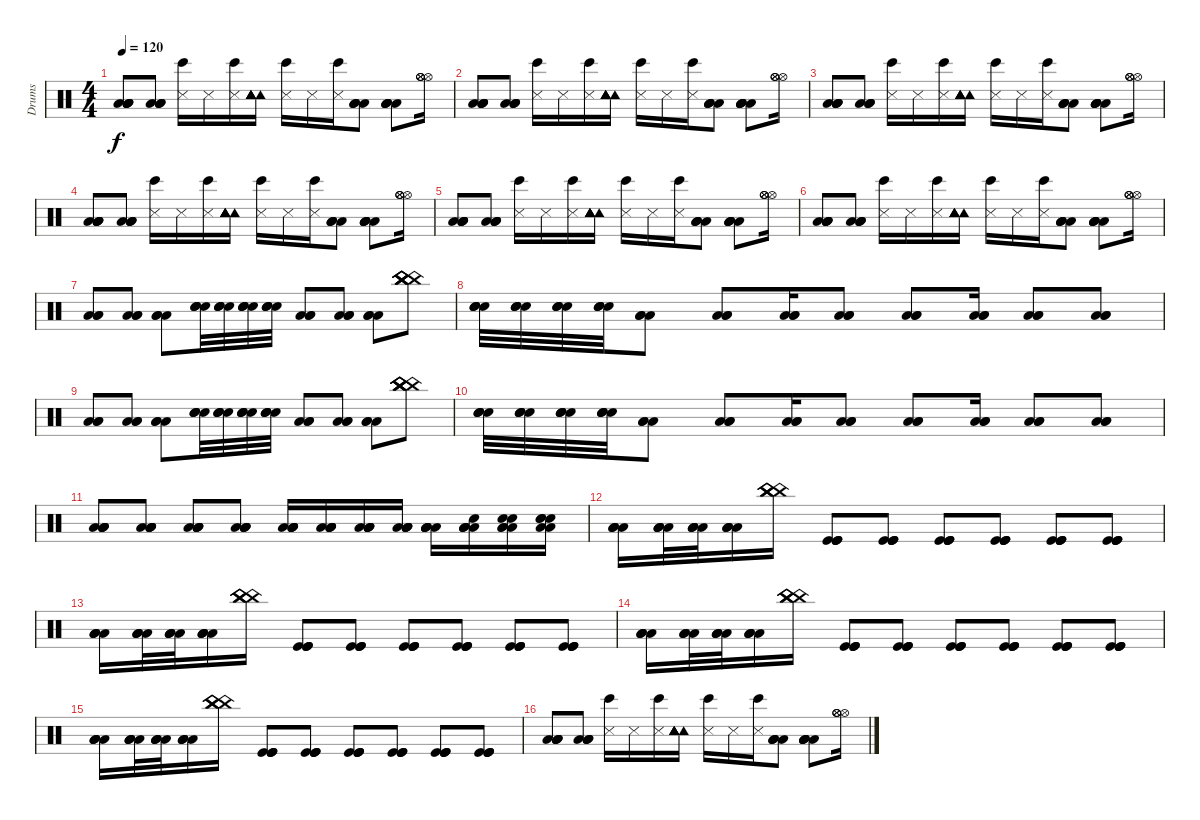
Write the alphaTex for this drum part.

\track ("Drums" "Drums") {instrument percussion}
\staff {score}
\articulation defaults
\ts (4 4)
\tempo 120
\clef neutral
\ks c
("Low Floor Tom (hit)" "Low Floor Tom (hit)" "Low Floor Tom (hit)" "Low Floor Tom (hit)" "Low Floor Tom (hit)").8{dy f} ("Low Floor Tom (hit)" "Low Floor Tom (hit)" "Low Floor Tom (hit)" "Low Floor Tom (hit)").8 ("Bongo High (hit)" "Snare (side stick) 3").16 "Snare (side stick) 3".16 ("Bongo High (hit)" "Snare (side stick) 3").16 ("Tambourine (hit)" "Tambourine (hit)" "Tambourine (hit)" "Tambourine (hit)" "Tambourine (hit)" "Tambourine (hit)").16 ("Bongo High (hit)" "Snare (side stick) 3").16 "Snare (side stick) 3".16 ("Bongo High (hit)" "Snare (side stick) 3").16 ("Low Floor Tom (hit)" "Low Floor Tom (hit)" "Low Floor Tom (hit)" "Low Floor Tom (hit)").8 ("Low Floor Tom (hit)" "Low Floor Tom (hit)" "Low Floor Tom (hit)" "Low Floor Tom (hit)" "Low Floor Tom (hit)").8 ("Hi-Hat (open)" "Hi-Hat (open)" "Hi-Hat (open)" "Hi-Hat (open)").16 |
("Low Floor Tom (hit)" "Low Floor Tom (hit)" "Low Floor Tom (hit)" "Low Floor Tom (hit)" "Low Floor Tom (hit)").8 ("Low Floor Tom (hit)" "Low Floor Tom (hit)" "Low Floor Tom (hit)" "Low Floor Tom (hit)").8 ("Bongo High (hit)" "Snare (side stick) 3").16 "Snare (side stick) 3".16 ("Bongo High (hit)" "Snare (side stick) 3").16 ("Tambourine (hit)" "Tambourine (hit)" "Tambourine (hit)" "Tambourine (hit)" "Tambourine (hit)" "Tambourine (hit)").16 ("Bongo High (hit)" "Snare (side stick) 3").16 "Snare (side stick) 3".16 ("Bongo High (hit)" "Snare (side stick) 3").16 ("Low Floor Tom (hit)" "Low Floor Tom (hit)" "Low Floor Tom (hit)" "Low Floor Tom (hit)").8 ("Low Floor Tom (hit)" "Low Floor Tom (hit)" "Low Floor Tom (hit)" "Low Floor Tom (hit)" "Low Floor Tom (hit)").8 ("Hi-Hat (open)" "Hi-Hat (open)" "Hi-Hat (open)" "Hi-Hat (open)").16 |
("Low Floor Tom (hit)" "Low Floor Tom (hit)" "Low Floor Tom (hit)" "Low Floor Tom (hit)" "Low Floor Tom (hit)").8 ("Low Floor Tom (hit)" "Low Floor Tom (hit)" "Low Floor Tom (hit)" "Low Floor Tom (hit)").8 ("Bongo High (hit)" "Snare (side stick) 3").16 "Snare (side stick) 3".16 ("Bongo High (hit)" "Snare (side stick) 3").16 ("Tambourine (hit)" "Tambourine (hit)" "Tambourine (hit)" "Tambourine (hit)" "Tambourine (hit)" "Tambourine (hit)").16 ("Bongo High (hit)" "Snare (side stick) 3").16 "Snare (side stick) 3".16 ("Bongo High (hit)" "Snare (side stick) 3").16 ("Low Floor Tom (hit)" "Low Floor Tom (hit)" "Low Floor Tom (hit)" "Low Floor Tom (hit)").8 ("Low Floor Tom (hit)" "Low Floor Tom (hit)" "Low Floor Tom (hit)" "Low Floor Tom (hit)" "Low Floor Tom (hit)").8 ("Hi-Hat (open)" "Hi-Hat (open)" "Hi-Hat (open)" "Hi-Hat (open)").16 |
("Low Floor Tom (hit)" "Low Floor Tom (hit)" "Low Floor Tom (hit)" "Low Floor Tom (hit)" "Low Floor Tom (hit)").8 ("Low Floor Tom (hit)" "Low Floor Tom (hit)" "Low Floor Tom (hit)" "Low Floor Tom (hit)").8 ("Bongo High (hit)" "Snare (side stick) 3").16 "Snare (side stick) 3".16 ("Bongo High (hit)" "Snare (side stick) 3").16 ("Tambourine (hit)" "Tambourine (hit)" "Tambourine (hit)" "Tambourine (hit)" "Tambourine (hit)" "Tambourine (hit)").16 ("Bongo High (hit)" "Snare (side stick) 3").16 "Snare (side stick) 3".16 ("Bongo High (hit)" "Snare (side stick) 3").16 ("Low Floor Tom (hit)" "Low Floor Tom (hit)" "Low Floor Tom (hit)" "Low Floor Tom (hit)").8 ("Low Floor Tom (hit)" "Low Floor Tom (hit)" "Low Floor Tom (hit)" "Low Floor Tom (hit)" "Low Floor Tom (hit)").8 ("Hi-Hat (open)" "Hi-Hat (open)" "Hi-Hat (open)" "Hi-Hat (open)").16 |
("Low Floor Tom (hit)" "Low Floor Tom (hit)" "Low Floor Tom (hit)" "Low Floor Tom (hit)" "Low Floor Tom (hit)").8 ("Low Floor Tom (hit)" "Low Floor Tom (hit)" "Low Floor Tom (hit)" "Low Floor Tom (hit)").8 ("Bongo High (hit)" "Snare (side stick) 3").16 "Snare (side stick) 3".16 ("Bongo High (hit)" "Snare (side stick) 3").16 ("Tambourine (hit)" "Tambourine (hit)" "Tambourine (hit)" "Tambourine (hit)" "Tambourine (hit)" "Tambourine (hit)").16 ("Bongo High (hit)" "Snare (side stick) 3").16 "Snare (side stick) 3".16 ("Bongo High (hit)" "Snare (side stick) 3").16 ("Low Floor Tom (hit)" "Low Floor Tom (hit)" "Low Floor Tom (hit)" "Low Floor Tom (hit)").8 ("Low Floor Tom (hit)" "Low Floor Tom (hit)" "Low Floor Tom (hit)" "Low Floor Tom (hit)" "Low Floor Tom (hit)").8 ("Hi-Hat (open)" "Hi-Hat (open)" "Hi-Hat (open)" "Hi-Hat (open)").16 |
("Low Floor Tom (hit)" "Low Floor Tom (hit)" "Low Floor Tom (hit)" "Low Floor Tom (hit)" "Low Floor Tom (hit)").8 ("Low Floor Tom (hit)" "Low Floor Tom (hit)" "Low Floor Tom (hit)" "Low Floor Tom (hit)").8 ("Bongo High (hit)" "Snare (side stick) 3").16 "Snare (side stick) 3".16 ("Bongo High (hit)" "Snare (side stick) 3").16 ("Tambourine (hit)" "Tambourine (hit)" "Tambourine (hit)" "Tambourine (hit)" "Tambourine (hit)" "Tambourine (hit)").16 ("Bongo High (hit)" "Snare (side stick) 3").16 "Snare (side stick) 3".16 ("Bongo High (hit)" "Snare (side stick) 3").16 ("Low Floor Tom (hit)" "Low Floor Tom (hit)" "Low Floor Tom (hit)" "Low Floor Tom (hit)").8 ("Low Floor Tom (hit)" "Low Floor Tom (hit)" "Low Floor Tom (hit)" "Low Floor Tom (hit)" "Low Floor Tom (hit)").8 ("Hi-Hat (open)" "Hi-Hat (open)" "Hi-Hat (open)" "Hi-Hat (open)").16 |
("Low Floor Tom (hit)" "Low Floor Tom (hit)" "Low Floor Tom (hit)").8 ("Low Floor Tom (hit)" "Low Floor Tom (hit)" "Low Floor Tom (hit)").8 ("Low Floor Tom (hit)" "Low Floor Tom (hit)" "Low Floor Tom (hit)").8 ("Snare (hit) 2" "Snare (hit) 2" "Snare (hit) 2" "Snare (hit) 2").32 ("Snare (hit) 2" "Snare (hit) 2" "Snare (hit) 2" "Snare (hit) 2").32 ("Snare (hit) 2" "Snare (hit) 2" "Snare (hit) 2" "Snare (hit) 2").32 ("Snare (hit) 2" "Snare (hit) 2" "Snare (hit) 2" "Snare (hit) 2").32 ("Low Floor Tom (hit)" "Low Floor Tom (hit)" "Low Floor Tom (hit)").8 ("Low Floor Tom (hit)" "Low Floor Tom (hit)" "Low Floor Tom (hit)").8 ("Low Floor Tom (hit)" "Low Floor Tom (hit)" "Low Floor Tom (hit)").8 ("China (hit)" "China (hit)" "China (hit)" "China (hit)" "China (hit)" "China (hit)").8 |
("Snare (hit) 2" "Snare (hit) 2" "Snare (hit) 2" "Snare (hit) 2").32 ("Snare (hit) 2" "Snare (hit) 2" "Snare (hit) 2" "Snare (hit) 2").32 ("Snare (hit) 2" "Snare (hit) 2" "Snare (hit) 2" "Snare (hit) 2").32 ("Snare (hit) 2" "Snare (hit) 2" "Snare (hit) 2" "Snare (hit) 2").32 ("Low Floor Tom (hit)" "Low Floor Tom (hit)" "Low Floor Tom (hit)").8 ("Low Floor Tom (hit)" "Low Floor Tom (hit)" "Low Floor Tom (hit)").8 ("Low Floor Tom (hit)" "Low Floor Tom (hit)" "Low Floor Tom (hit)").16 ("Low Floor Tom (hit)" "Low Floor Tom (hit)" "Low Floor Tom (hit)").8 ("Low Floor Tom (hit)" "Low Floor Tom (hit)" "Low Floor Tom (hit)").8 ("Low Floor Tom (hit)" "Low Floor Tom (hit)" "Low Floor Tom (hit)").16 ("Low Floor Tom (hit)" "Low Floor Tom (hit)" "Low Floor Tom (hit)").8 ("Low Floor Tom (hit)" "Low Floor Tom (hit)" "Low Floor Tom (hit)").8 |
("Low Floor Tom (hit)" "Low Floor Tom (hit)" "Low Floor Tom (hit)").8 ("Low Floor Tom (hit)" "Low Floor Tom (hit)" "Low Floor Tom (hit)").8 ("Low Floor Tom (hit)" "Low Floor Tom (hit)" "Low Floor Tom (hit)").8 ("Snare (hit) 2" "Snare (hit) 2" "Snare (hit) 2" "Snare (hit) 2").32 ("Snare (hit) 2" "Snare (hit) 2" "Snare (hit) 2" "Snare (hit) 2").32 ("Snare (hit) 2" "Snare (hit) 2" "Snare (hit) 2" "Snare (hit) 2").32 ("Snare (hit) 2" "Snare (hit) 2" "Snare (hit) 2" "Snare (hit) 2").32 ("Low Floor Tom (hit)" "Low Floor Tom (hit)" "Low Floor Tom (hit)").8 ("Low Floor Tom (hit)" "Low Floor Tom (hit)" "Low Floor Tom (hit)").8 ("Low Floor Tom (hit)" "Low Floor Tom (hit)" "Low Floor Tom (hit)").8 ("China (hit)" "China (hit)" "China (hit)" "China (hit)" "China (hit)" "China (hit)").8 |
("Snare (hit) 2" "Snare (hit) 2" "Snare (hit) 2" "Snare (hit) 2").32 ("Snare (hit) 2" "Snare (hit) 2" "Snare (hit) 2" "Snare (hit) 2").32 ("Snare (hit) 2" "Snare (hit) 2" "Snare (hit) 2" "Snare (hit) 2").32 ("Snare (hit) 2" "Snare (hit) 2" "Snare (hit) 2" "Snare (hit) 2").32 ("Low Floor Tom (hit)" "Low Floor Tom (hit)" "Low Floor Tom (hit)").8 ("Low Floor Tom (hit)" "Low Floor Tom (hit)" "Low Floor Tom (hit)").8 ("Low Floor Tom (hit)" "Low Floor Tom (hit)" "Low Floor Tom (hit)").16 ("Low Floor Tom (hit)" "Low Floor Tom (hit)" "Low Floor Tom (hit)").8 ("Low Floor Tom (hit)" "Low Floor Tom (hit)" "Low Floor Tom (hit)").8 ("Low Floor Tom (hit)" "Low Floor Tom (hit)" "Low Floor Tom (hit)").16 ("Low Floor Tom (hit)" "Low Floor Tom (hit)" "Low Floor Tom (hit)").8 ("Low Floor Tom (hit)" "Low Floor Tom (hit)" "Low Floor Tom (hit)").8 |
("Low Floor Tom (hit)" "Low Floor Tom (hit)" "Low Floor Tom (hit)" "Low Floor Tom (hit)" "Low Floor Tom (hit)").8 ("Low Floor Tom (hit)" "Low Floor Tom (hit)" "Low Floor Tom (hit)" "Low Floor Tom (hit)" "Low Floor Tom (hit)").8 ("Low Floor Tom (hit)" "Low Floor Tom (hit)" "Low Floor Tom (hit)" "Low Floor Tom (hit)" "Low Floor Tom (hit)").8 ("Low Floor Tom (hit)" "Low Floor Tom (hit)" "Low Floor Tom (hit)" "Low Floor Tom (hit)" "Low Floor Tom (hit)").8 ("Low Floor Tom (hit)" "Low Floor Tom (hit)" "Low Floor Tom (hit)" "Low Floor Tom (hit)" "Low Floor Tom (hit)").16 ("Low Floor Tom (hit)" "Low Floor Tom (hit)" "Low Floor Tom (hit)" "Low Floor Tom (hit)" "Low Floor Tom (hit)").16 ("Low Floor Tom (hit)" "Low Floor Tom (hit)" "Low Floor Tom (hit)" "Low Floor Tom (hit)" "Low Floor Tom (hit)").16 ("Low Floor Tom (hit)" "Low Floor Tom (hit)" "Low Floor Tom (hit)" "Low Floor Tom (hit)" "Low Floor Tom (hit)").16 ("Low Floor Tom (hit)" "Low Floor Tom (hit)" "Low Floor Tom (hit)" "Low Floor Tom (hit)" "Low Floor Tom (hit)").16 ("Low Floor Tom (hit)" "Low Floor Tom (hit)" "Low Floor Tom (hit)" "Snare (hit) 2" "Low Floor Tom (hit)").16 ("Low Floor Tom (hit)" "Low Floor Tom (hit)" "Snare (hit) 2" "Snare (hit) 2" "Low Floor Tom (hit)").16 ("Low Floor Tom (hit)" "Snare (hit) 2" "Snare (hit) 2" "Snare (hit) 2" "Low Floor Tom (hit)").16 |
("Low Floor Tom (hit)" "Low Floor Tom (hit)" "Low Floor Tom (hit)" "Low Floor Tom (hit)").16 ("Low Floor Tom (hit)" "Low Floor Tom (hit)" "Low Floor Tom (hit)" "Low Floor Tom (hit)").32 ("Low Floor Tom (hit)" "Low Floor Tom (hit)" "Low Floor Tom (hit)" "Low Floor Tom (hit)").32 ("Low Floor Tom (hit)" "Low Floor Tom (hit)" "Low Floor Tom (hit)" "Low Floor Tom (hit)").16 ("China (hit)" "China (hit)" "China (hit)" "China (hit)").16 ("Kick (hit)" "Kick (hit)" "Kick (hit)" "Kick (hit)").8 ("Kick (hit)" "Kick (hit)" "Kick (hit)" "Kick (hit)").8 ("Kick (hit)" "Kick (hit)" "Kick (hit)" "Kick (hit)").8 ("Kick (hit)" "Kick (hit)" "Kick (hit)" "Kick (hit)").8 ("Kick (hit)" "Kick (hit)" "Kick (hit)" "Kick (hit)").8 ("Kick (hit)" "Kick (hit)" "Kick (hit)" "Kick (hit)").8 |
("Low Floor Tom (hit)" "Low Floor Tom (hit)" "Low Floor Tom (hit)" "Low Floor Tom (hit)").16 ("Low Floor Tom (hit)" "Low Floor Tom (hit)" "Low Floor Tom (hit)" "Low Floor Tom (hit)").32 ("Low Floor Tom (hit)" "Low Floor Tom (hit)" "Low Floor Tom (hit)" "Low Floor Tom (hit)").32 ("Low Floor Tom (hit)" "Low Floor Tom (hit)" "Low Floor Tom (hit)" "Low Floor Tom (hit)").16 ("China (hit)" "China (hit)" "China (hit)" "China (hit)").16 ("Kick (hit)" "Kick (hit)" "Kick (hit)" "Kick (hit)").8 ("Kick (hit)" "Kick (hit)" "Kick (hit)" "Kick (hit)").8 ("Kick (hit)" "Kick (hit)" "Kick (hit)" "Kick (hit)").8 ("Kick (hit)" "Kick (hit)" "Kick (hit)" "Kick (hit)").8 ("Kick (hit)" "Kick (hit)" "Kick (hit)" "Kick (hit)").8 ("Kick (hit)" "Kick (hit)" "Kick (hit)" "Kick (hit)").8 |
("Low Floor Tom (hit)" "Low Floor Tom (hit)" "Low Floor Tom (hit)" "Low Floor Tom (hit)").16 ("Low Floor Tom (hit)" "Low Floor Tom (hit)" "Low Floor Tom (hit)" "Low Floor Tom (hit)").32 ("Low Floor Tom (hit)" "Low Floor Tom (hit)" "Low Floor Tom (hit)" "Low Floor Tom (hit)").32 ("Low Floor Tom (hit)" "Low Floor Tom (hit)" "Low Floor Tom (hit)" "Low Floor Tom (hit)").16 ("China (hit)" "China (hit)" "China (hit)" "China (hit)").16 ("Kick (hit)" "Kick (hit)" "Kick (hit)" "Kick (hit)").8 ("Kick (hit)" "Kick (hit)" "Kick (hit)" "Kick (hit)").8 ("Kick (hit)" "Kick (hit)" "Kick (hit)" "Kick (hit)").8 ("Kick (hit)" "Kick (hit)" "Kick (hit)" "Kick (hit)").8 ("Kick (hit)" "Kick (hit)" "Kick (hit)" "Kick (hit)").8 ("Kick (hit)" "Kick (hit)" "Kick (hit)" "Kick (hit)").8 |
("Low Floor Tom (hit)" "Low Floor Tom (hit)" "Low Floor Tom (hit)" "Low Floor Tom (hit)").16 ("Low Floor Tom (hit)" "Low Floor Tom (hit)" "Low Floor Tom (hit)" "Low Floor Tom (hit)").32 ("Low Floor Tom (hit)" "Low Floor Tom (hit)" "Low Floor Tom (hit)" "Low Floor Tom (hit)").32 ("Low Floor Tom (hit)" "Low Floor Tom (hit)" "Low Floor Tom (hit)" "Low Floor Tom (hit)").16 ("China (hit)" "China (hit)" "China (hit)" "China (hit)").16 ("Kick (hit)" "Kick (hit)" "Kick (hit)" "Kick (hit)").8 ("Kick (hit)" "Kick (hit)" "Kick (hit)" "Kick (hit)").8 ("Kick (hit)" "Kick (hit)" "Kick (hit)" "Kick (hit)").8 ("Kick (hit)" "Kick (hit)" "Kick (hit)" "Kick (hit)").8 ("Kick (hit)" "Kick (hit)" "Kick (hit)" "Kick (hit)").8 ("Kick (hit)" "Kick (hit)" "Kick (hit)" "Kick (hit)").8 |
("Low Floor Tom (hit)" "Low Floor Tom (hit)" "Low Floor Tom (hit)" "Low Floor Tom (hit)" "Low Floor Tom (hit)").8 ("Low Floor Tom (hit)" "Low Floor Tom (hit)" "Low Floor Tom (hit)" "Low Floor Tom (hit)").8 ("Bongo High (hit)" "Snare (side stick) 3").16 "Snare (side stick) 3".16 ("Bongo High (hit)" "Snare (side stick) 3").16 ("Tambourine (hit)" "Tambourine (hit)" "Tambourine (hit)" "Tambourine (hit)" "Tambourine (hit)" "Tambourine (hit)").16 ("Bongo High (hit)" "Snare (side stick) 3").16 "Snare (side stick) 3".16 ("Bongo High (hit)" "Snare (side stick) 3").16 ("Low Floor Tom (hit)" "Low Floor Tom (hit)" "Low Floor Tom (hit)" "Low Floor Tom (hit)").8 ("Low Floor Tom (hit)" "Low Floor Tom (hit)" "Low Floor Tom (hit)" "Low Floor Tom (hit)" "Low Floor Tom (hit)").8 ("Hi-Hat (open)" "Hi-Hat (open)" "Hi-Hat (open)" "Hi-Hat (open)").16
